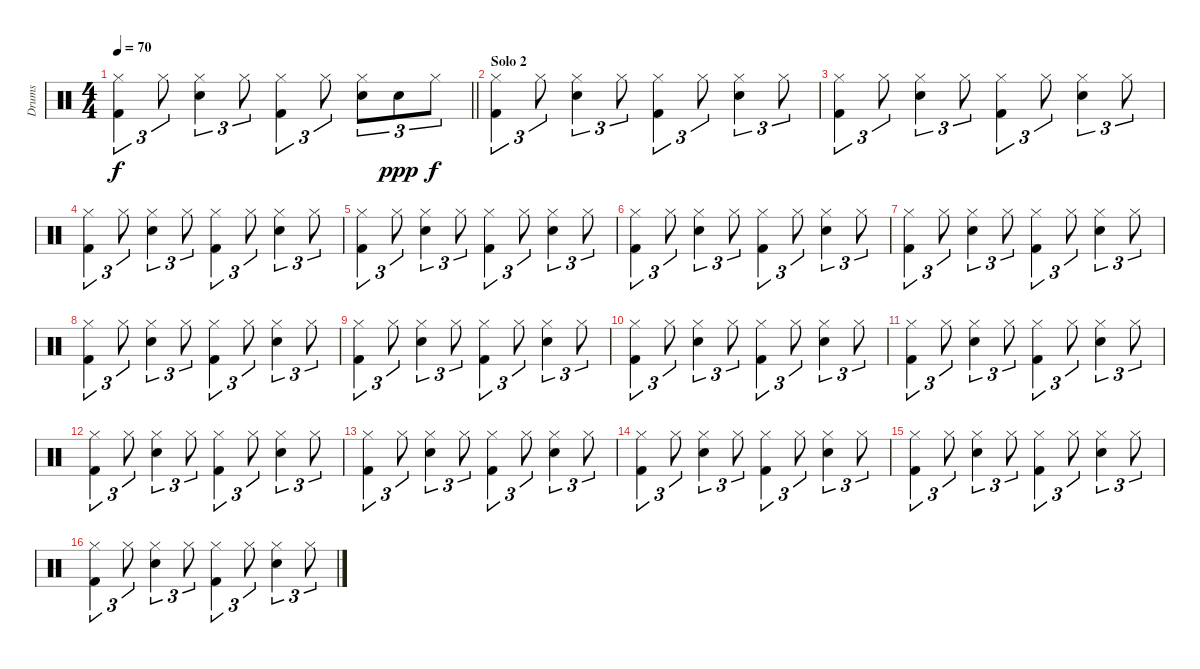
\track ("Drums" "Drums") {instrument percussion}
\staff {score}
\articulation defaults
\ts (4 4)
\tempo 70
\clef neutral
\barLineRight lightlight
\ks c
("Hi-Hat (closed)" "Kick (hit) 2").4{tu (3 2) dy f} "Hi-Hat (closed)".8{tu (3 2)} ("Hi-Hat (closed)" "Snare (hit) 2").4{tu (3 2)} "Hi-Hat (closed)".8{tu (3 2)} ("Hi-Hat (closed)" "Kick (hit) 2").4{tu (3 2)} "Hi-Hat (closed)".8{tu (3 2)} ("Hi-Hat (closed)" "Snare (hit) 2").8{tu (3 2)} "Snare (hit) 2".8{tu (3 2) dy ppp} "Hi-Hat (closed)".8{tu (3 2) dy f} |
\section ("" "Solo 2")
("Hi-Hat (closed)" "Kick (hit) 2").4{tu (3 2)} "Hi-Hat (closed)".8{tu (3 2)} ("Hi-Hat (closed)" "Snare (hit) 2").4{tu (3 2)} "Hi-Hat (closed)".8{tu (3 2)} ("Hi-Hat (closed)" "Kick (hit) 2").4{tu (3 2)} "Hi-Hat (closed)".8{tu (3 2)} ("Hi-Hat (closed)" "Snare (hit) 2").4{tu (3 2)} "Hi-Hat (closed)".8{tu (3 2)} |
("Hi-Hat (closed)" "Kick (hit) 2").4{tu (3 2)} "Hi-Hat (closed)".8{tu (3 2)} ("Hi-Hat (closed)" "Snare (hit) 2").4{tu (3 2)} "Hi-Hat (closed)".8{tu (3 2)} ("Hi-Hat (closed)" "Kick (hit) 2").4{tu (3 2)} "Hi-Hat (closed)".8{tu (3 2)} ("Hi-Hat (closed)" "Snare (hit) 2").4{tu (3 2)} "Hi-Hat (closed)".8{tu (3 2)} |
("Hi-Hat (closed)" "Kick (hit) 2").4{tu (3 2)} "Hi-Hat (closed)".8{tu (3 2)} ("Hi-Hat (closed)" "Snare (hit) 2").4{tu (3 2)} "Hi-Hat (closed)".8{tu (3 2)} ("Hi-Hat (closed)" "Kick (hit) 2").4{tu (3 2)} "Hi-Hat (closed)".8{tu (3 2)} ("Hi-Hat (closed)" "Snare (hit) 2").4{tu (3 2)} "Hi-Hat (closed)".8{tu (3 2)} |
("Hi-Hat (closed)" "Kick (hit) 2").4{tu (3 2)} "Hi-Hat (closed)".8{tu (3 2)} ("Hi-Hat (closed)" "Snare (hit) 2").4{tu (3 2)} "Hi-Hat (closed)".8{tu (3 2)} ("Hi-Hat (closed)" "Kick (hit) 2").4{tu (3 2)} "Hi-Hat (closed)".8{tu (3 2)} ("Hi-Hat (closed)" "Snare (hit) 2").4{tu (3 2)} "Hi-Hat (closed)".8{tu (3 2)} |
("Hi-Hat (closed)" "Kick (hit) 2").4{tu (3 2)} "Hi-Hat (closed)".8{tu (3 2)} ("Hi-Hat (closed)" "Snare (hit) 2").4{tu (3 2)} "Hi-Hat (closed)".8{tu (3 2)} ("Hi-Hat (closed)" "Kick (hit) 2").4{tu (3 2)} "Hi-Hat (closed)".8{tu (3 2)} ("Hi-Hat (closed)" "Snare (hit) 2").4{tu (3 2)} "Hi-Hat (closed)".8{tu (3 2)} |
("Hi-Hat (closed)" "Kick (hit) 2").4{tu (3 2)} "Hi-Hat (closed)".8{tu (3 2)} ("Hi-Hat (closed)" "Snare (hit) 2").4{tu (3 2)} "Hi-Hat (closed)".8{tu (3 2)} ("Hi-Hat (closed)" "Kick (hit) 2").4{tu (3 2)} "Hi-Hat (closed)".8{tu (3 2)} ("Hi-Hat (closed)" "Snare (hit) 2").4{tu (3 2)} "Hi-Hat (closed)".8{tu (3 2)} |
("Hi-Hat (closed)" "Kick (hit) 2").4{tu (3 2)} "Hi-Hat (closed)".8{tu (3 2)} ("Hi-Hat (closed)" "Snare (hit) 2").4{tu (3 2)} "Hi-Hat (closed)".8{tu (3 2)} ("Hi-Hat (closed)" "Kick (hit) 2").4{tu (3 2)} "Hi-Hat (closed)".8{tu (3 2)} ("Hi-Hat (closed)" "Snare (hit) 2").4{tu (3 2)} "Hi-Hat (closed)".8{tu (3 2)} |
("Hi-Hat (closed)" "Kick (hit) 2").4{tu (3 2)} "Hi-Hat (closed)".8{tu (3 2)} ("Hi-Hat (closed)" "Snare (hit) 2").4{tu (3 2)} "Hi-Hat (closed)".8{tu (3 2)} ("Hi-Hat (closed)" "Kick (hit) 2").4{tu (3 2)} "Hi-Hat (closed)".8{tu (3 2)} ("Hi-Hat (closed)" "Snare (hit) 2").4{tu (3 2)} "Hi-Hat (closed)".8{tu (3 2)} |
("Hi-Hat (closed)" "Kick (hit) 2").4{tu (3 2)} "Hi-Hat (closed)".8{tu (3 2)} ("Hi-Hat (closed)" "Snare (hit) 2").4{tu (3 2)} "Hi-Hat (closed)".8{tu (3 2)} ("Hi-Hat (closed)" "Kick (hit) 2").4{tu (3 2)} "Hi-Hat (closed)".8{tu (3 2)} ("Hi-Hat (closed)" "Snare (hit) 2").4{tu (3 2)} "Hi-Hat (closed)".8{tu (3 2)} |
("Hi-Hat (closed)" "Kick (hit) 2").4{tu (3 2)} "Hi-Hat (closed)".8{tu (3 2)} ("Hi-Hat (closed)" "Snare (hit) 2").4{tu (3 2)} "Hi-Hat (closed)".8{tu (3 2)} ("Hi-Hat (closed)" "Kick (hit) 2").4{tu (3 2)} "Hi-Hat (closed)".8{tu (3 2)} ("Hi-Hat (closed)" "Snare (hit) 2").4{tu (3 2)} "Hi-Hat (closed)".8{tu (3 2)} |
("Hi-Hat (closed)" "Kick (hit) 2").4{tu (3 2)} "Hi-Hat (closed)".8{tu (3 2)} ("Hi-Hat (closed)" "Snare (hit) 2").4{tu (3 2)} "Hi-Hat (closed)".8{tu (3 2)} ("Hi-Hat (closed)" "Kick (hit) 2").4{tu (3 2)} "Hi-Hat (closed)".8{tu (3 2)} ("Hi-Hat (closed)" "Snare (hit) 2").4{tu (3 2)} "Hi-Hat (closed)".8{tu (3 2)} |
("Hi-Hat (closed)" "Kick (hit) 2").4{tu (3 2)} "Hi-Hat (closed)".8{tu (3 2)} ("Hi-Hat (closed)" "Snare (hit) 2").4{tu (3 2)} "Hi-Hat (closed)".8{tu (3 2)} ("Hi-Hat (closed)" "Kick (hit) 2").4{tu (3 2)} "Hi-Hat (closed)".8{tu (3 2)} ("Hi-Hat (closed)" "Snare (hit) 2").4{tu (3 2)} "Hi-Hat (closed)".8{tu (3 2)} |
("Hi-Hat (closed)" "Kick (hit) 2").4{tu (3 2)} "Hi-Hat (closed)".8{tu (3 2)} ("Hi-Hat (closed)" "Snare (hit) 2").4{tu (3 2)} "Hi-Hat (closed)".8{tu (3 2)} ("Hi-Hat (closed)" "Kick (hit) 2").4{tu (3 2)} "Hi-Hat (closed)".8{tu (3 2)} ("Hi-Hat (closed)" "Snare (hit) 2").4{tu (3 2)} "Hi-Hat (closed)".8{tu (3 2)} |
("Hi-Hat (closed)" "Kick (hit) 2").4{tu (3 2)} "Hi-Hat (closed)".8{tu (3 2)} ("Hi-Hat (closed)" "Snare (hit) 2").4{tu (3 2)} "Hi-Hat (closed)".8{tu (3 2)} ("Hi-Hat (closed)" "Kick (hit) 2").4{tu (3 2)} "Hi-Hat (closed)".8{tu (3 2)} ("Hi-Hat (closed)" "Snare (hit) 2").4{tu (3 2)} "Hi-Hat (closed)".8{tu (3 2)} |
("Hi-Hat (closed)" "Kick (hit) 2").4{tu (3 2)} "Hi-Hat (closed)".8{tu (3 2)} ("Hi-Hat (closed)" "Snare (hit) 2").4{tu (3 2)} "Hi-Hat (closed)".8{tu (3 2)} ("Hi-Hat (closed)" "Kick (hit) 2").4{tu (3 2)} "Hi-Hat (closed)".8{tu (3 2)} ("Hi-Hat (closed)" "Snare (hit) 2").4{tu (3 2)} "Hi-Hat (closed)".8{tu (3 2)}
